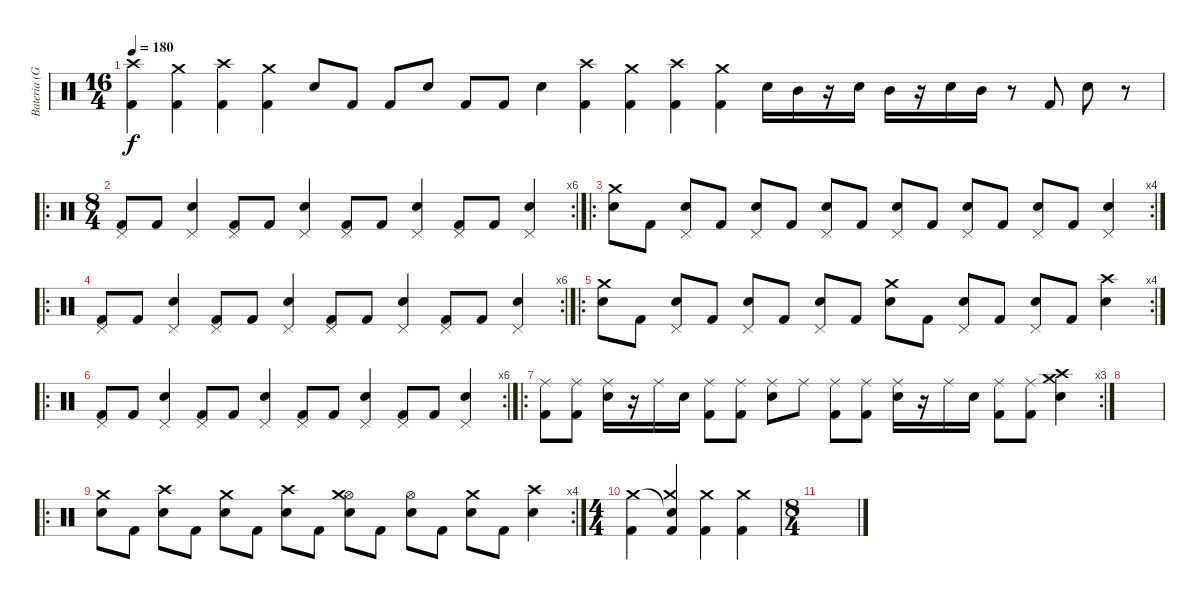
\track ("Bateria (GUILLOTE)" "Bateria (G") {instrument percussion}
\staff {score}
\articulation defaults
\ts (16 4)
\tempo 180
\clef neutral
\ks c
("Crash high (hit)" "Kick (hit) 2").4{dy f} ("Crash medium (hit)" "Kick (hit) 2").4 ("Crash high (hit)" "Kick (hit) 2").4 ("Crash medium (hit)" "Kick (hit) 2").4 "Electric Snare (hit)".8 "Kick (hit) 2".8 "Kick (hit) 2".8 "Electric Snare (hit)".8 "Kick (hit) 2".8 "Kick (hit) 2".8 "Electric Snare (hit)".4 ("Crash high (hit)" "Kick (hit) 2").4 ("Crash medium (hit)" "Kick (hit) 2").4 ("Crash high (hit)" "Kick (hit) 2").4 ("Crash medium (hit)" "Kick (hit) 2").4 "Electric Snare (hit)".16 "Mid Tom (hit)".16 r.16 "Electric Snare (hit)".16 "Mid Tom (hit)".16 r.16 "Electric Snare (hit)".16 "Mid Tom (hit)".16 r.8 "Kick (hit) 2".8 "Electric Snare (hit)".8 r.8 |
\ro
\rc 6
\ts (8 4)
("Pedal Hi-Hat (hit)" "Kick (hit) 2").8 "Kick (hit) 2".8 ("Pedal Hi-Hat (hit)" "Electric Snare (hit)").4 ("Pedal Hi-Hat (hit)" "Kick (hit) 2").8 "Kick (hit) 2".8 ("Pedal Hi-Hat (hit)" "Electric Snare (hit)").4 ("Pedal Hi-Hat (hit)" "Kick (hit) 2").8 "Kick (hit) 2".8 ("Pedal Hi-Hat (hit)" "Electric Snare (hit)").4 ("Pedal Hi-Hat (hit)" "Kick (hit) 2").8 "Kick (hit) 2".8 ("Pedal Hi-Hat (hit)" "Electric Snare (hit)").4 |
\ro
\rc 4
("Electric Snare (hit)" "Crash medium (hit)").8 "Kick (hit) 2".8 ("Electric Snare (hit)" "Pedal Hi-Hat (hit)").8 "Kick (hit) 2".8 ("Electric Snare (hit)" "Pedal Hi-Hat (hit)").8 "Kick (hit) 2".8 ("Electric Snare (hit)" "Pedal Hi-Hat (hit)").8 "Kick (hit) 2".8 ("Electric Snare (hit)" "Pedal Hi-Hat (hit)").8 "Kick (hit) 2".8 ("Electric Snare (hit)" "Pedal Hi-Hat (hit)").8 "Kick (hit) 2".8 ("Electric Snare (hit)" "Pedal Hi-Hat (hit)").8 "Kick (hit) 2".8 ("Electric Snare (hit)" "Pedal Hi-Hat (hit)").4 |
\ro
\rc 6
("Pedal Hi-Hat (hit)" "Kick (hit) 2").8 "Kick (hit) 2".8 ("Electric Snare (hit)" "Pedal Hi-Hat (hit)").4 ("Pedal Hi-Hat (hit)" "Kick (hit) 2").8 "Kick (hit) 2".8 ("Pedal Hi-Hat (hit)" "Electric Snare (hit)").4 ("Pedal Hi-Hat (hit)" "Kick (hit) 2").8 "Kick (hit) 2".8 ("Pedal Hi-Hat (hit)" "Electric Snare (hit)").4 ("Pedal Hi-Hat (hit)" "Kick (hit) 2").8 "Kick (hit) 2".8 ("Pedal Hi-Hat (hit)" "Electric Snare (hit)").4 |
\ro
\rc 4
("Crash medium (hit)" "Electric Snare (hit)").8 "Kick (hit) 2".8 ("Pedal Hi-Hat (hit)" "Electric Snare (hit)").8 "Kick (hit) 2".8 ("Pedal Hi-Hat (hit)" "Electric Snare (hit)").8 "Kick (hit) 2".8 ("Pedal Hi-Hat (hit)" "Electric Snare (hit)").8 "Kick (hit) 2".8 ("Electric Snare (hit)" "Crash medium (hit)").8 "Kick (hit) 2".8 ("Pedal Hi-Hat (hit)" "Electric Snare (hit)").8 "Kick (hit) 2".8 ("Pedal Hi-Hat (hit)" "Electric Snare (hit)").8 "Kick (hit) 2".8 ("Electric Snare (hit)" "Crash high (hit)").4 |
\ro
\rc 6
("Pedal Hi-Hat (hit)" "Kick (hit) 2").8 "Kick (hit) 2".8 ("Electric Snare (hit)" "Pedal Hi-Hat (hit)").4 ("Pedal Hi-Hat (hit)" "Kick (hit) 2").8 "Kick (hit) 2".8 ("Electric Snare (hit)" "Pedal Hi-Hat (hit)").4 ("Pedal Hi-Hat (hit)" "Kick (hit) 2").8 "Kick (hit) 2".8 ("Electric Snare (hit)" "Pedal Hi-Hat (hit)").4 ("Pedal Hi-Hat (hit)" "Kick (hit) 2").8 "Kick (hit) 2".8 ("Electric Snare (hit)" "Pedal Hi-Hat (hit)").4 |
\ro
\rc 3
("Ride (middle)" "Kick (hit) 2").8 ("Ride (middle)" "Kick (hit) 2").8 ("Ride (middle)" "Electric Snare (hit)").16 r.16 "Ride (middle)".16 "Electric Snare (hit)".16 ("Ride (middle)" "Kick (hit) 2").8 ("Ride (middle)" "Kick (hit) 2").8 ("Ride (middle)" "Electric Snare (hit)").8 "Ride (middle)".8 ("Ride (middle)" "Kick (hit) 2").8 ("Ride (middle)" "Kick (hit) 2").8 ("Ride (middle)" "Electric Snare (hit)").16 r.16 "Ride (middle)".16 "Electric Snare (hit)".16 ("Ride (middle)" "Kick (hit) 2").8 ("Ride (middle)" "Kick (hit) 2").8 ("Electric Snare (hit)" "Crash high (hit)" "Crash medium (hit)").4 |
|
\ro
\rc 4
("Electric Snare (hit)" "Crash medium (hit)").8 "Kick (hit) 2".8 ("Electric Snare (hit)" "Crash high (hit)").8 "Kick (hit) 2".8 ("Electric Snare (hit)" "Crash medium (hit)").8 "Kick (hit) 2".8 ("Electric Snare (hit)" "Crash high (hit)").8 "Kick (hit) 2".8 ("Electric Snare (hit)" "Hi-Hat (open)" "Crash medium (hit)").8 "Kick (hit) 2".8 ("Electric Snare (hit)" "Hi-Hat (open)").8 "Kick (hit) 2".8 ("Electric Snare (hit)" "Crash medium (hit)").8 "Kick (hit) 2".8 ("Electric Snare (hit)" "Crash high (hit)").4 |
\ts (4 4)
("Crash medium (hit)" "Kick (hit) 2").4 ("Snare (hit)"{t} "Crash medium (hit)" "Kick (hit) 2").4 ("Crash medium (hit)" "Kick (hit) 2").4 ("Kick (hit) 2" "Crash medium (hit)").4 |
\ts (8 4)
